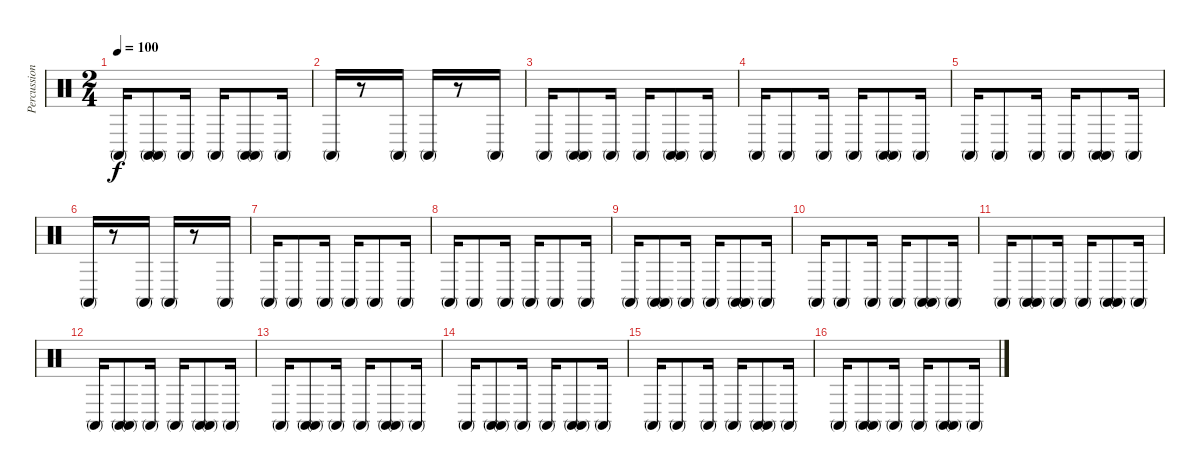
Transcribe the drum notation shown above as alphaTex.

\track ("Percussion" "Percussion") {instrument percussion}
\staff {score}
\articulation defaults
\ts (2 4)
\tempo 100
\clef neutral
\ks c "Conga high (mute)".16{dy f}
("Conga high (mute)" "Conga high (mute)").8 "Conga high (mute)".16 "Conga high (mute)".16 ("Conga high (mute)" "Conga high (mute)").8 "Conga high (mute)".16 |
"Conga high (mute)".16 r.8 "Conga high (mute)".16 "Conga high (mute)".16 r.8 "Conga high (mute)".16 |
"Conga high (mute)".16 ("Conga high (mute)" "Conga high (mute)").8 "Conga high (mute)".16 "Conga high (mute)".16 ("Conga high (mute)" "Conga high (mute)").8 "Conga high (mute)".16 |
"Conga high (mute)".16 "Conga high (mute)".8 "Conga high (mute)".16 "Conga high (mute)".16 ("Conga high (mute)" "Conga high (mute)").8 "Conga high (mute)".16 |
"Conga high (mute)".16 "Conga high (mute)".8 "Conga high (mute)".16 "Conga high (mute)".16 ("Conga high (mute)" "Conga high (mute)").8 "Conga high (mute)".16 |
"Conga high (mute)".16 r.8 "Conga high (mute)".16 "Conga high (mute)".16 r.8 "Conga high (mute)".16 |
"Conga high (mute)".16 "Conga high (mute)".8 "Conga high (mute)".16 "Conga high (mute)".16 "Conga high (mute)".8 "Conga high (mute)".16 |
"Conga high (mute)".16 "Conga high (mute)".8 "Conga high (mute)".16 "Conga high (mute)".16 "Conga high (mute)".8 "Conga high (mute)".16 |
"Conga high (mute)".16 ("Conga high (mute)" "Conga high (mute)").8 "Conga high (mute)".16 "Conga high (mute)".16 ("Conga high (mute)" "Conga high (mute)").8 "Conga high (mute)".16 |
"Conga high (mute)".16 "Conga high (mute)".8 "Conga high (mute)".16 "Conga high (mute)".16 ("Conga high (mute)" "Conga high (mute)").8 "Conga high (mute)".16 |
"Conga high (mute)".16 ("Conga high (mute)" "Conga high (mute)").8 "Conga high (mute)".16 "Conga high (mute)".16 ("Conga high (mute)" "Conga high (mute)").8 "Conga high (mute)".16 |
"Conga high (mute)".16 ("Conga high (mute)" "Conga high (mute)").8 "Conga high (mute)".16 "Conga high (mute)".16 ("Conga high (mute)" "Conga high (mute)").8 "Conga high (mute)".16 |
"Conga high (mute)".16 ("Conga high (mute)" "Conga high (mute)").8 "Conga high (mute)".16 "Conga high (mute)".16 ("Conga high (mute)" "Conga high (mute)").8 "Conga high (mute)".16 |
"Conga high (mute)".16 ("Conga high (mute)" "Conga high (mute)").8 "Conga high (mute)".16 "Conga high (mute)".16 ("Conga high (mute)" "Conga high (mute)").8 "Conga high (mute)".16 |
"Conga high (mute)".16 "Conga high (mute)".8 "Conga high (mute)".16 "Conga high (mute)".16 ("Conga high (mute)" "Conga high (mute)").8 "Conga high (mute)".16 |
"Conga high (mute)".16 ("Conga high (mute)" "Conga high (mute)").8 "Conga high (mute)".16 "Conga high (mute)".16 ("Conga high (mute)" "Conga high (mute)").8 "Conga high (mute)".16
